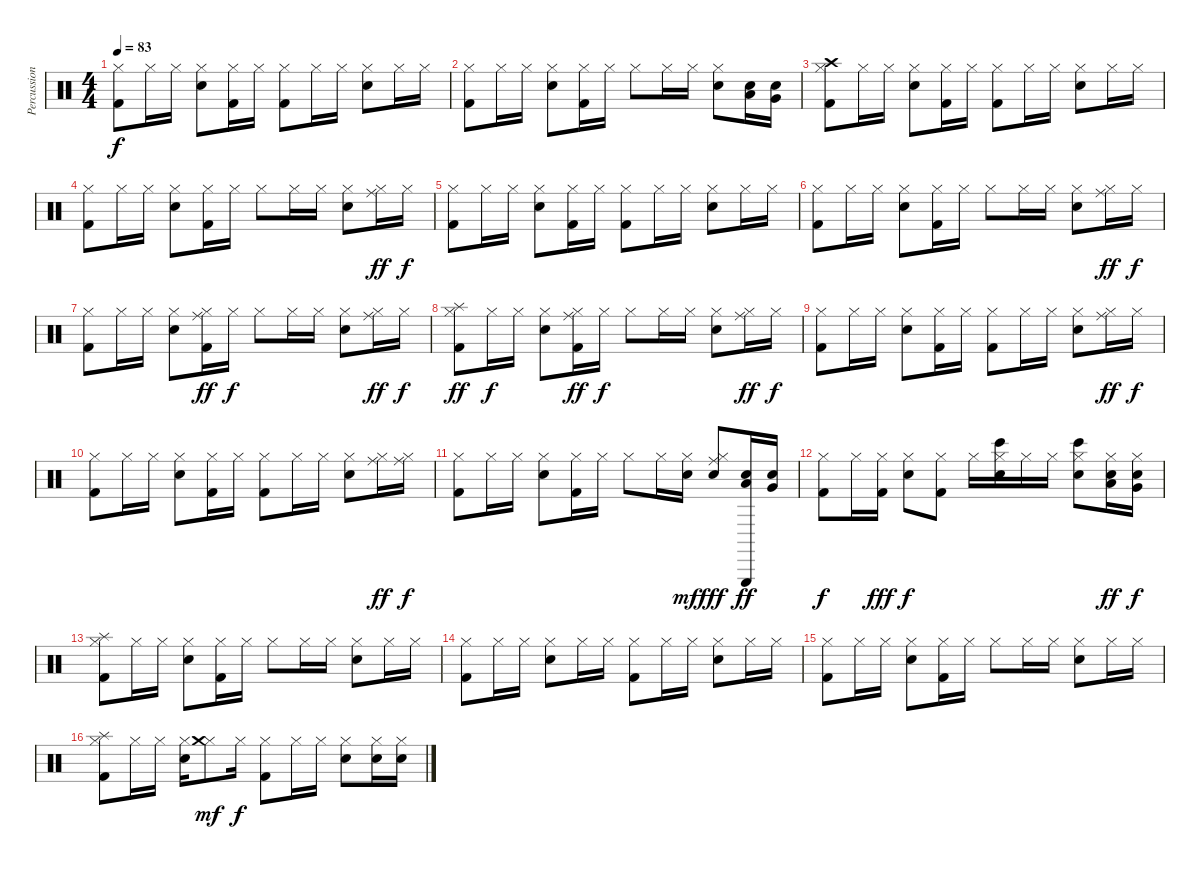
\track ("Percussion" "Percussion") {instrument percussion}
\staff {score}
\articulation defaults
\ts (4 4)
\tempo 83
\clef neutral
\ks c
("Kick (hit) 2" "Hi-Hat (closed)").8{dy f} "Hi-Hat (closed)".16 "Hi-Hat (closed)".16 ("Hi-Hat (closed)" "Electric Snare (hit)").8 ("Hi-Hat (closed)" "Kick (hit) 2").16 "Hi-Hat (closed)".16 ("Hi-Hat (closed)" "Kick (hit) 2").8 "Hi-Hat (closed)".16 "Hi-Hat (closed)".16 ("Hi-Hat (closed)" "Electric Snare (hit)").8 "Hi-Hat (closed)".16 "Hi-Hat (closed)".16 |
("Hi-Hat (closed)" "Kick (hit) 2").8 "Hi-Hat (closed)".16 "Hi-Hat (closed)".16 ("Hi-Hat (closed)" "Electric Snare (hit)").8 ("Hi-Hat (closed)" "Kick (hit) 2").16 "Hi-Hat (closed)".16 "Hi-Hat (closed)".8 "Hi-Hat (closed)".16 "Hi-Hat (closed)".16 ("Hi-Hat (closed)" "Electric Snare (hit)").8 ("Electric Snare (hit)" "Low Tom (hit)").16 ("Electric Snare (hit)" "Very Low Tom (hit)").16 |
("Kick (hit) 2" "Hi-Hat (closed)" "Crash high (hit)").8 "Hi-Hat (closed)".16 "Hi-Hat (closed)".16 ("Hi-Hat (closed)" "Electric Snare (hit)").8 ("Hi-Hat (closed)" "Kick (hit) 2").16 "Hi-Hat (closed)".16 ("Hi-Hat (closed)" "Kick (hit) 2").8 "Hi-Hat (closed)".16 "Hi-Hat (closed)".16 ("Hi-Hat (closed)" "Electric Snare (hit)").8 "Hi-Hat (closed)".16 "Hi-Hat (closed)".16 |
("Hi-Hat (closed)" "Kick (hit) 2").8 "Hi-Hat (closed)".16 "Hi-Hat (closed)".16 ("Hi-Hat (closed)" "Electric Snare (hit)").8 ("Hi-Hat (closed)" "Kick (hit) 2").16 "Hi-Hat (closed)".16 "Hi-Hat (closed)".8 "Hi-Hat (closed)".16 "Hi-Hat (closed)".16 ("Hi-Hat (closed)" "Electric Snare (hit)").8 ("Hi-Hat (closed)" "Ride (middle)").16{dy ff} "Hi-Hat (closed)".16{dy f} |
("Kick (hit) 2" "Hi-Hat (closed)").8 "Hi-Hat (closed)".16 "Hi-Hat (closed)".16 ("Hi-Hat (closed)" "Electric Snare (hit)").8 ("Hi-Hat (closed)" "Kick (hit) 2").16 "Hi-Hat (closed)".16 ("Hi-Hat (closed)" "Kick (hit) 2").8 "Hi-Hat (closed)".16 "Hi-Hat (closed)".16 ("Hi-Hat (closed)" "Electric Snare (hit)").8 "Hi-Hat (closed)".16 "Hi-Hat (closed)".16 |
("Hi-Hat (closed)" "Kick (hit) 2").8 "Hi-Hat (closed)".16 "Hi-Hat (closed)".16 ("Hi-Hat (closed)" "Electric Snare (hit)").8 ("Hi-Hat (closed)" "Kick (hit) 2").16 "Hi-Hat (closed)".16 "Hi-Hat (closed)".8 "Hi-Hat (closed)".16 "Hi-Hat (closed)".16 ("Hi-Hat (closed)" "Electric Snare (hit)").8 ("Hi-Hat (closed)" "Ride (middle)").16{dy ff} "Hi-Hat (closed)".16{dy f} |
("Hi-Hat (closed)" "Kick (hit) 2").8 "Hi-Hat (closed)".16 "Hi-Hat (closed)".16 ("Hi-Hat (closed)" "Electric Snare (hit)").8 ("Hi-Hat (closed)" "Kick (hit) 2" "Ride (middle)").16{dy ff} "Hi-Hat (closed)".16{dy f} "Hi-Hat (closed)".8 "Hi-Hat (closed)".16 "Hi-Hat (closed)".16 ("Hi-Hat (closed)" "Electric Snare (hit)").8 ("Hi-Hat (closed)" "Ride (middle)").16{dy ff} "Hi-Hat (closed)".16{dy f} |
("Hi-Hat (closed)" "Kick (hit) 2" "Splash (hit)").8{dy ff} "Hi-Hat (closed)".16{dy f} "Hi-Hat (closed)".16 ("Hi-Hat (closed)" "Electric Snare (hit)").8 ("Hi-Hat (closed)" "Kick (hit) 2" "Ride (middle)").16{dy ff} "Hi-Hat (closed)".16{dy f} "Hi-Hat (closed)".8 "Hi-Hat (closed)".16 "Hi-Hat (closed)".16 ("Hi-Hat (closed)" "Electric Snare (hit)").8 ("Hi-Hat (closed)" "Ride (middle)").16{dy ff} "Hi-Hat (closed)".16{dy f} |
("Hi-Hat (closed)" "Kick (hit) 2").8 "Hi-Hat (closed)".16 "Hi-Hat (closed)".16 ("Hi-Hat (closed)" "Electric Snare (hit)").8 ("Hi-Hat (closed)" "Kick (hit) 2").16 "Hi-Hat (closed)".16 ("Hi-Hat (closed)" "Kick (hit) 2").8 "Hi-Hat (closed)".16 "Hi-Hat (closed)".16 ("Hi-Hat (closed)" "Electric Snare (hit)").8 ("Hi-Hat (closed)" "Ride (middle)").16{dy ff} "Hi-Hat (closed)".16{dy f} |
("Hi-Hat (closed)" "Kick (hit) 2").8 "Hi-Hat (closed)".16 "Hi-Hat (closed)".16 ("Hi-Hat (closed)" "Electric Snare (hit)").8 ("Hi-Hat (closed)" "Kick (hit) 2").16 "Hi-Hat (closed)".16 ("Hi-Hat (closed)" "Kick (hit) 2").8 "Hi-Hat (closed)".16 "Hi-Hat (closed)".16 ("Hi-Hat (closed)" "Electric Snare (hit)").8 ("Hi-Hat (closed)" "Ride (middle)").16{dy ff} ("Hi-Hat (closed)" "Ride (middle)").16{dy f} |
("Hi-Hat (closed)" "Kick (hit) 2").8 "Hi-Hat (closed)".16 "Hi-Hat (closed)".16 ("Hi-Hat (closed)" "Electric Snare (hit)").8 ("Hi-Hat (closed)" "Kick (hit) 2").16 "Hi-Hat (closed)".16 "Hi-Hat (closed)".8 "Hi-Hat (closed)".16 ("Hi-Hat (closed)" "Electric Snare (hit)").16{dy mf} ("Hi-Hat (closed)" "Electric Snare (hit)" "Ride (middle)").8{dy fff} ("Triangle (hit)" "Electric Snare (hit)" "Low Tom (hit)").16{dy ff} ("Electric Snare (hit)" "Very Low Tom (hit)").16 |
("Hi-Hat (closed)" "Kick (hit) 2").8{dy f} "Hi-Hat (closed)".16 ("Hi-Hat (closed)" "Kick (hit) 2").16{dy fff} ("Hi-Hat (closed)" "Electric Snare (hit)").8{dy f} ("Hi-Hat (closed)" "Kick (hit) 2").8 "Hi-Hat (closed)".16 ("Hi-Hat (closed)" "Electric Snare (hit)" "Bongo High (hit)").16 "Hi-Hat (closed)".16 "Hi-Hat (closed)".16 ("Hi-Hat (closed)" "Electric Snare (hit)" "Bongo High (hit)").8 ("Hi-Hat (closed)" "Electric Snare (hit)" "Low Tom (hit)").16{dy ff} ("Hi-Hat (closed)" "Electric Snare (hit)" "Very Low Tom (hit)").16{dy f} |
("Hi-Hat (closed)" "Kick (hit) 2" "Splash (hit)").8 "Hi-Hat (closed)".16 "Hi-Hat (closed)".16 ("Hi-Hat (closed)" "Electric Snare (hit)").8 ("Hi-Hat (closed)" "Kick (hit) 2").16 "Hi-Hat (closed)".16 "Hi-Hat (closed)".8 "Hi-Hat (closed)".16 "Hi-Hat (closed)".16 ("Hi-Hat (closed)" "Electric Snare (hit)").8 "Hi-Hat (closed)".16 "Hi-Hat (closed)".16 |
("Hi-Hat (closed)" "Kick (hit) 2").8 "Hi-Hat (closed)".16 "Hi-Hat (closed)".16 ("Hi-Hat (closed)" "Electric Snare (hit)").8 "Hi-Hat (closed)".16 "Hi-Hat (closed)".16 ("Hi-Hat (closed)" "Kick (hit) 2").8 "Hi-Hat (closed)".16 "Hi-Hat (closed)".16 ("Hi-Hat (closed)" "Electric Snare (hit)").8 "Hi-Hat (closed)".16 "Hi-Hat (closed)".16 |
("Hi-Hat (closed)" "Kick (hit) 2").8 "Hi-Hat (closed)".16 "Hi-Hat (closed)".16 ("Hi-Hat (closed)" "Electric Snare (hit)").8 ("Hi-Hat (closed)" "Kick (hit) 2").16 "Hi-Hat (closed)".16 "Hi-Hat (closed)".8 "Hi-Hat (closed)".16 "Hi-Hat (closed)".16 ("Hi-Hat (closed)" "Electric Snare (hit)").8 "Hi-Hat (closed)".16 "Hi-Hat (closed)".16 |
("Hi-Hat (closed)" "Kick (hit) 2" "Splash (hit)").8 "Hi-Hat (closed)".16 "Hi-Hat (closed)".16 ("Hi-Hat (closed)" "Electric Snare (hit)").16 ("Hi-Hat (closed)" "Crash medium (hit)").8{dy mf} "Hi-Hat (closed)".16{dy f} ("Hi-Hat (closed)" "Kick (hit) 2").8 "Hi-Hat (closed)".16 "Hi-Hat (closed)".16 ("Hi-Hat (closed)" "Electric Snare (hit)").8 ("Hi-Hat (closed)" "Electric Snare (hit)").16 ("Hi-Hat (closed)" "Electric Snare (hit)").16
